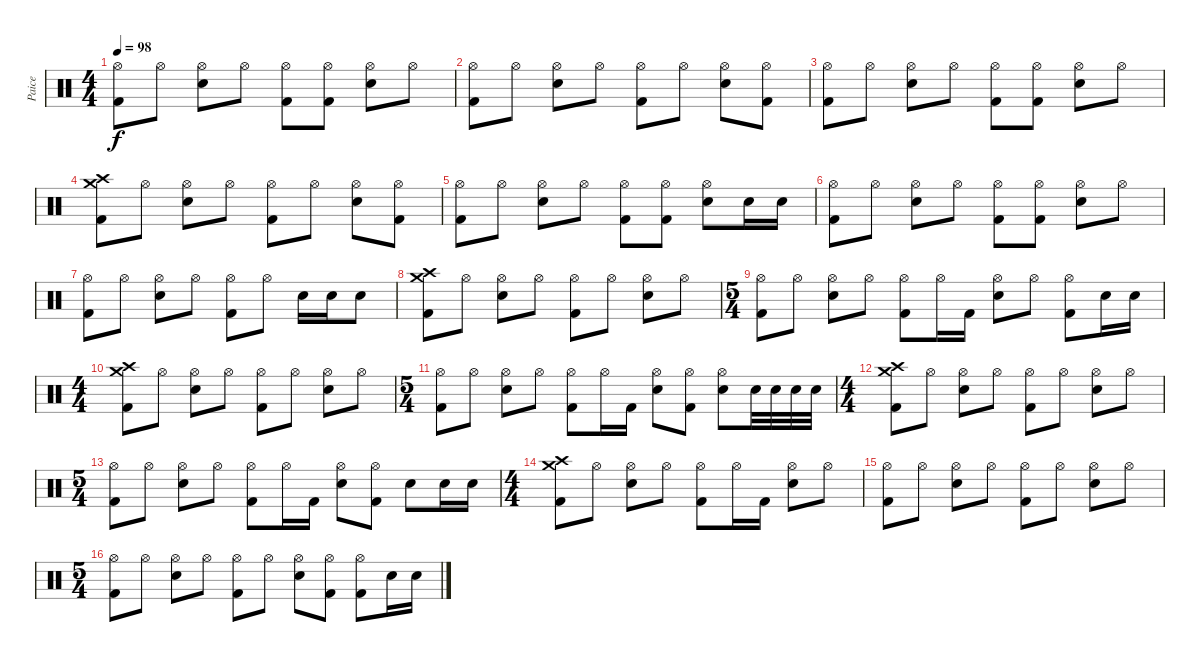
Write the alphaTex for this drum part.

\track ("Paice" "Paice") {instrument percussion}
\staff {score}
\articulation defaults
\ts (4 4)
\tempo 98
\clef neutral
\ks c
("Hi-Hat (open)" "Kick (hit) 2").8{dy f} "Hi-Hat (open)".8 ("Hi-Hat (open)" "Electric Snare (hit)").8 "Hi-Hat (open)".8 ("Hi-Hat (open)" "Kick (hit) 2").8 ("Hi-Hat (open)" "Kick (hit) 2").8 ("Hi-Hat (open)" "Electric Snare (hit)").8 "Hi-Hat (open)".8 |
("Hi-Hat (open)" "Kick (hit) 2").8 "Hi-Hat (open)".8 ("Hi-Hat (open)" "Electric Snare (hit)").8 "Hi-Hat (open)".8 ("Hi-Hat (open)" "Kick (hit) 2").8 "Hi-Hat (open)".8 ("Hi-Hat (open)" "Electric Snare (hit)").8 ("Hi-Hat (open)" "Kick (hit) 2").8 |
("Hi-Hat (open)" "Kick (hit) 2").8 "Hi-Hat (open)".8 ("Hi-Hat (open)" "Electric Snare (hit)").8 "Hi-Hat (open)".8 ("Hi-Hat (open)" "Kick (hit) 2").8 ("Hi-Hat (open)" "Kick (hit) 2").8 ("Hi-Hat (open)" "Electric Snare (hit)").8 "Hi-Hat (open)".8 |
("Crash high (hit)" "Crash medium (hit)" "Kick (hit) 2").8 "Hi-Hat (open)".8 ("Hi-Hat (open)" "Electric Snare (hit)").8 "Hi-Hat (open)".8 ("Hi-Hat (open)" "Kick (hit) 2").8 "Hi-Hat (open)".8 ("Hi-Hat (open)" "Electric Snare (hit)").8 ("Hi-Hat (open)" "Kick (hit) 2").8 |
("Hi-Hat (open)" "Kick (hit) 2").8 "Hi-Hat (open)".8 ("Hi-Hat (open)" "Electric Snare (hit)").8 "Hi-Hat (open)".8 ("Hi-Hat (open)" "Kick (hit) 2").8 ("Hi-Hat (open)" "Kick (hit) 2").8 ("Hi-Hat (open)" "Electric Snare (hit)").8 "Electric Snare (hit)".16 "Electric Snare (hit)".16 |
("Hi-Hat (open)" "Kick (hit) 2").8 "Hi-Hat (open)".8 ("Hi-Hat (open)" "Electric Snare (hit)").8 "Hi-Hat (open)".8 ("Hi-Hat (open)" "Kick (hit) 2").8 ("Hi-Hat (open)" "Kick (hit) 2").8 ("Hi-Hat (open)" "Electric Snare (hit)").8 "Hi-Hat (open)".8 |
("Hi-Hat (open)" "Kick (hit) 2").8 "Hi-Hat (open)".8 ("Hi-Hat (open)" "Electric Snare (hit)").8 "Hi-Hat (open)".8 ("Hi-Hat (open)" "Kick (hit) 2").8 "Hi-Hat (open)".8 "Electric Snare (hit)".16 "Electric Snare (hit)".16 "Electric Snare (hit)".8 |
("Crash high (hit)" "Crash medium (hit)" "Kick (hit) 2").8 "Hi-Hat (open)".8 ("Hi-Hat (open)" "Electric Snare (hit)").8 "Hi-Hat (open)".8 ("Hi-Hat (open)" "Kick (hit) 2").8 "Hi-Hat (open)".8 ("Hi-Hat (open)" "Electric Snare (hit)").8 "Hi-Hat (open)".8 |
\ts (5 4)
("Hi-Hat (open)" "Kick (hit) 2").8 "Hi-Hat (open)".8 ("Hi-Hat (open)" "Electric Snare (hit)").8 "Hi-Hat (open)".8 ("Hi-Hat (open)" "Kick (hit) 2").8 "Hi-Hat (open)".16 "Kick (hit) 2".16 ("Hi-Hat (open)" "Electric Snare (hit)").8 "Hi-Hat (open)".8 ("Hi-Hat (open)" "Kick (hit) 2").8 "Electric Snare (hit)".16 "Electric Snare (hit)".16 |
\ts (4 4)
("Crash high (hit)" "Crash medium (hit)" "Kick (hit) 2").8 "Hi-Hat (open)".8 ("Hi-Hat (open)" "Electric Snare (hit)").8 "Hi-Hat (open)".8 ("Hi-Hat (open)" "Kick (hit) 2").8 "Hi-Hat (open)".8 ("Hi-Hat (open)" "Electric Snare (hit)").8 "Hi-Hat (open)".8 |
\ts (5 4)
("Hi-Hat (open)" "Kick (hit) 2").8 "Hi-Hat (open)".8 ("Hi-Hat (open)" "Electric Snare (hit)").8 "Hi-Hat (open)".8 ("Hi-Hat (open)" "Kick (hit) 2").8 "Hi-Hat (open)".16 "Kick (hit) 2".16 ("Hi-Hat (open)" "Electric Snare (hit)").8 ("Hi-Hat (open)" "Kick (hit) 2").8 ("Hi-Hat (open)" "Electric Snare (hit)").8 "Electric Snare (hit)".32 "Electric Snare (hit)".32 "Electric Snare (hit)".32 "Electric Snare (hit)".32 |
\ts (4 4)
("Crash high (hit)" "Crash medium (hit)" "Kick (hit) 2").8 "Hi-Hat (open)".8 ("Hi-Hat (open)" "Electric Snare (hit)").8 "Hi-Hat (open)".8 ("Hi-Hat (open)" "Kick (hit) 2").8 "Hi-Hat (open)".8 ("Hi-Hat (open)" "Electric Snare (hit)").8 "Hi-Hat (open)".8 |
\ts (5 4)
("Hi-Hat (open)" "Kick (hit) 2").8 "Hi-Hat (open)".8 ("Hi-Hat (open)" "Electric Snare (hit)").8 "Hi-Hat (open)".8 ("Hi-Hat (open)" "Kick (hit) 2").8 "Hi-Hat (open)".16 "Kick (hit) 2".16 ("Hi-Hat (open)" "Electric Snare (hit)").8 ("Hi-Hat (open)" "Kick (hit) 2").8 "Electric Snare (hit)".8 "Electric Snare (hit)".16 "Electric Snare (hit)".16 |
\ts (4 4)
("Crash high (hit)" "Crash medium (hit)" "Kick (hit) 2").8 "Hi-Hat (open)".8 ("Hi-Hat (open)" "Electric Snare (hit)").8 "Hi-Hat (open)".8 ("Hi-Hat (open)" "Kick (hit) 2").8 "Hi-Hat (open)".16 "Kick (hit) 2".16 ("Hi-Hat (open)" "Electric Snare (hit)").8 "Hi-Hat (open)".8 |
("Hi-Hat (open)" "Kick (hit) 2").8 "Hi-Hat (open)".8 ("Hi-Hat (open)" "Electric Snare (hit)").8 "Hi-Hat (open)".8 ("Hi-Hat (open)" "Kick (hit) 2").8 "Hi-Hat (open)".8 ("Hi-Hat (open)" "Electric Snare (hit)").8 "Hi-Hat (open)".8 |
\ts (5 4)
("Hi-Hat (open)" "Kick (hit) 2").8 "Hi-Hat (open)".8 ("Hi-Hat (open)" "Electric Snare (hit)").8 "Hi-Hat (open)".8 ("Hi-Hat (open)" "Kick (hit) 2").8 "Hi-Hat (open)".8 ("Hi-Hat (open)" "Electric Snare (hit)").8 ("Hi-Hat (open)" "Kick (hit) 2").8 ("Hi-Hat (open)" "Kick (hit) 2").8 "Electric Snare (hit)".16 "Electric Snare (hit)".16
